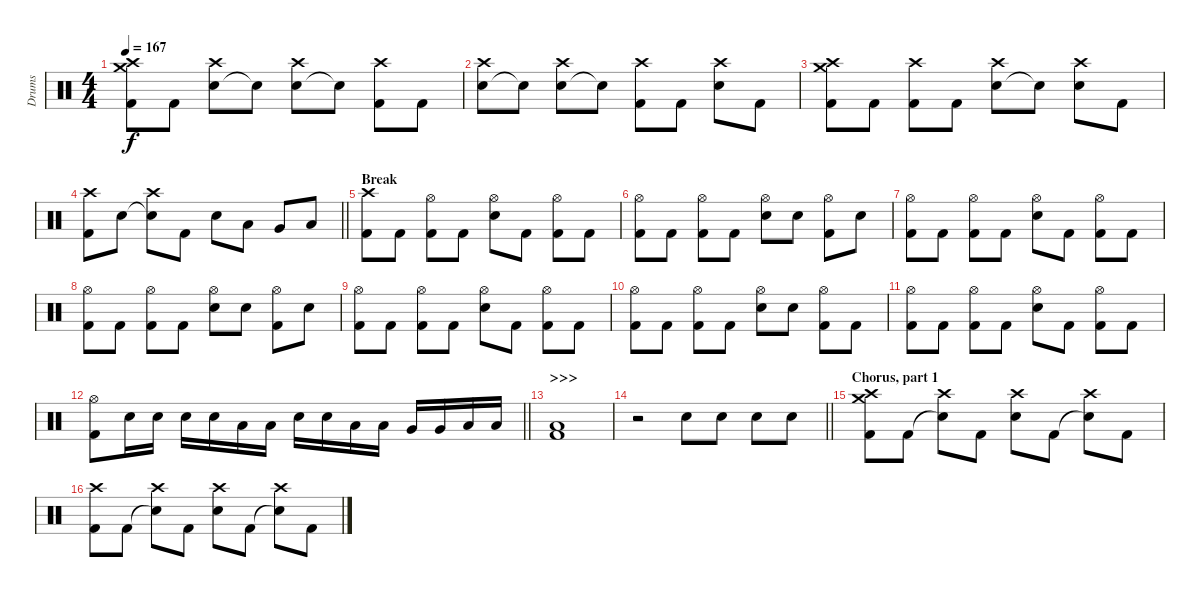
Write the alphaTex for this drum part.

\track ("Drums" "Drums") {instrument percussion}
\staff {score}
\articulation defaults
\ts (4 4)
\tempo 167
\clef neutral
\ks c
("Kick (hit) 2" "Crash medium (hit)" "Crash high (hit)").8{dy f} "Kick (hit) 2".8 ("Electric Snare (hit)" "Crash high (hit)").8 "Snare (hit)"{t}.8 ("Electric Snare (hit)" "Crash high (hit)").8 "Snare (hit)"{t}.8 ("Kick (hit) 2" "Crash high (hit)").8 "Kick (hit) 2".8 |
("Electric Snare (hit)" "Crash high (hit)").8 "Snare (hit)"{t}.8 ("Electric Snare (hit)" "Crash high (hit)").8 "Snare (hit)"{t}.8 ("Kick (hit) 2" "Crash high (hit)").8 "Kick (hit) 2".8 ("Electric Snare (hit)" "Crash high (hit)").8 "Kick (hit) 2".8 |
("Kick (hit) 2" "Crash medium (hit)" "Crash high (hit)").8 "Kick (hit) 2".8 ("Kick (hit) 2" "Crash high (hit)").8 "Kick (hit) 2".8 ("Electric Snare (hit)" "Crash high (hit)").8 "Snare (hit)"{t}.8 ("Electric Snare (hit)" "Crash high (hit)").8 "Kick (hit) 2".8 |
\barLineRight lightlight
("Kick (hit) 2" "Crash high (hit)").8 "Electric Snare (hit)".8 ("Snare (hit)"{t} "Crash high (hit)").8 "Kick (hit) 2".8 "Electric Snare (hit)".8 "Low Tom (hit)".8 "Very Low Tom (hit)".8 "Low Floor Tom (hit)".8 |
\section ("" "Break")
("Kick (hit) 2" "Crash high (hit)").8 "Kick (hit) 2".8 ("Kick (hit) 2" "Hi-Hat (open)").8 "Kick (hit) 2".8 ("Electric Snare (hit)" "Hi-Hat (open)").8 "Kick (hit) 2".8 ("Kick (hit) 2" "Hi-Hat (open)").8 "Kick (hit) 2".8 |
("Kick (hit) 2" "Hi-Hat (open)").8 "Kick (hit) 2".8 ("Kick (hit) 2" "Hi-Hat (open)").8 "Kick (hit) 2".8 ("Electric Snare (hit)" "Hi-Hat (open)").8 "Electric Snare (hit)".8 ("Kick (hit) 2" "Hi-Hat (open)").8 "Electric Snare (hit)".8 |
("Kick (hit) 2" "Hi-Hat (open)").8 "Kick (hit) 2".8 ("Kick (hit) 2" "Hi-Hat (open)").8 "Kick (hit) 2".8 ("Electric Snare (hit)" "Hi-Hat (open)").8 "Kick (hit) 2".8 ("Kick (hit) 2" "Hi-Hat (open)").8 "Kick (hit) 2".8 |
("Kick (hit) 2" "Hi-Hat (open)").8 "Kick (hit) 2".8 ("Kick (hit) 2" "Hi-Hat (open)").8 "Kick (hit) 2".8 ("Electric Snare (hit)" "Hi-Hat (open)").8 "Electric Snare (hit)".8 ("Kick (hit) 2" "Hi-Hat (open)").8 "Electric Snare (hit)".8 |
("Kick (hit) 2" "Hi-Hat (open)").8 "Kick (hit) 2".8 ("Kick (hit) 2" "Hi-Hat (open)").8 "Kick (hit) 2".8 ("Electric Snare (hit)" "Hi-Hat (open)").8 "Kick (hit) 2".8 ("Kick (hit) 2" "Hi-Hat (open)").8 "Kick (hit) 2".8 |
("Kick (hit) 2" "Hi-Hat (open)").8 "Kick (hit) 2".8 ("Kick (hit) 2" "Hi-Hat (open)").8 "Kick (hit) 2".8 ("Electric Snare (hit)" "Hi-Hat (open)").8 "Electric Snare (hit)".8 ("Kick (hit) 2" "Hi-Hat (open)").8 "Kick (hit) 2".8 |
("Kick (hit) 2" "Hi-Hat (open)").8 "Kick (hit) 2".8 ("Kick (hit) 2" "Hi-Hat (open)").8 "Kick (hit) 2".8 ("Electric Snare (hit)" "Hi-Hat (open)").8 "Kick (hit) 2".8 ("Kick (hit) 2" "Hi-Hat (open)").8 "Kick (hit) 2".8 |
\barLineRight lightlight
("Kick (hit) 2" "Hi-Hat (open)").8 "Electric Snare (hit)".16 "Electric Snare (hit)".16 "Electric Snare (hit)".16 "Electric Snare (hit)".16 "Low Tom (hit)".16 "Low Tom (hit)".16 "Electric Snare (hit)".16 "Electric Snare (hit)".16 "Low Tom (hit)".16 "Low Tom (hit)".16 "Very Low Tom (hit)".16 "Very Low Tom (hit)".16 "Low Floor Tom (hit)".16 "Low Floor Tom (hit)".16 |
\section ("" ">>>")
("Low Floor Tom (hit)" "Kick (hit) 2").1 |
\barLineRight lightlight
r.2 "Electric Snare (hit)".8 "Electric Snare (hit)".8 "Electric Snare (hit)".8 "Electric Snare (hit)".8 |
\section ("" "Chorus, part 1")
("Kick (hit) 2" "Crash medium (hit)" "Crash high (hit)").8 "Kick (hit) 2".8 ("Snare (hit)"{t} "Crash high (hit)").8 "Kick (hit) 2".8 ("Electric Snare (hit)" "Crash high (hit)").8 "Kick (hit) 2".8 ("Snare (hit)"{t} "Crash high (hit)").8 "Kick (hit) 2".8 |
("Kick (hit) 2" "Crash high (hit)").8 "Kick (hit) 2".8 ("Snare (hit)"{t} "Crash high (hit)").8 "Kick (hit) 2".8 ("Electric Snare (hit)" "Crash high (hit)").8 "Kick (hit) 2".8 ("Snare (hit)"{t} "Crash high (hit)").8 "Kick (hit) 2".8
